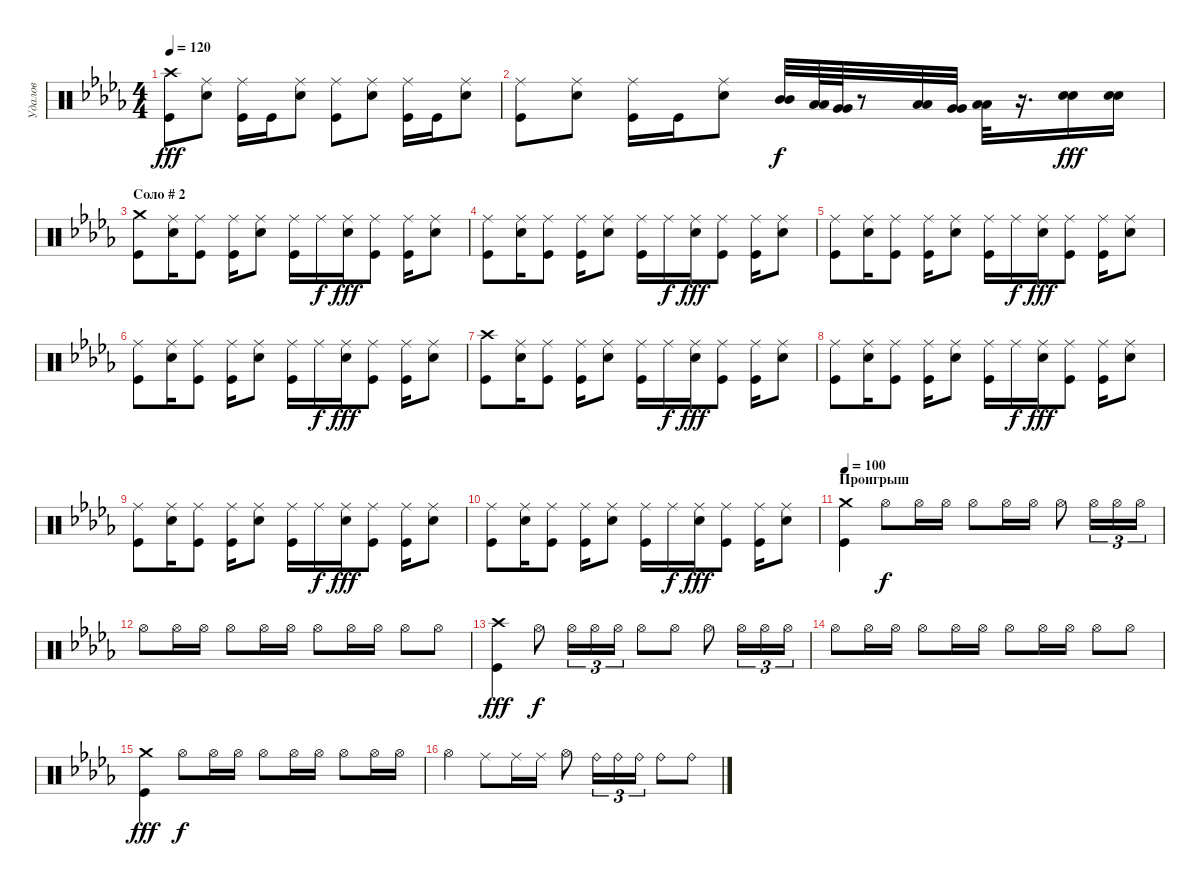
\track ("Удалов " "Удалов ") {instrument percussion}
\staff {score}
\articulation defaults
\ts (4 4)
\tempo 120
\clef neutral
\ks db
("Crash high (hit)" "Kick (hit)").8{dy fff} ("Snare (hit) 2" "Ride (middle)").8 ("Kick (hit)" "Ride (middle)").16 "Kick (hit)".16 ("Snare (hit) 2" "Ride (middle)").8 ("Kick (hit)" "Ride (middle)").8 ("Snare (hit) 2" "Ride (middle)").8 ("Kick (hit)" "Ride (middle)").16 "Kick (hit)".16 ("Snare (hit) 2" "Ride (middle)").8 |
("Kick (hit)" "Ride (middle)").8 ("Snare (hit) 2" "Ride (middle)").8 ("Kick (hit)" "Ride (middle)").16 "Kick (hit)".16 ("Snare (hit) 2" "Ride (middle)").8 ("Mid Tom (hit)" "Mid Tom (hit)").32{dy f} ("Low Tom (hit)" "Low Tom (hit)").64 ("Very Low Tom (hit)" "Very Low Tom (hit)").64 r.8 ("Low Tom (hit)" "Low Tom (hit)").32 ("Very Low Tom (hit)" "Very Low Tom (hit)").32 ("Low Floor Tom (hit)" "Low Floor Tom (hit)").32 r.16{d} ("Snare (hit) 2" "Snare (hit) 2").16{dy fff} ("Snare (hit) 2" "Snare (hit) 2").16 |
\section ("" "Соло # 2")
("Crash medium (hit)" "Kick (hit)").8 ("Snare (hit) 2" "Ride (middle)").16 ("Kick (hit)" "Ride (middle)").8 ("Kick (hit)" "Ride (middle)").16 ("Snare (hit) 2" "Ride (middle)").8 ("Kick (hit)" "Ride (middle)").16 "Ride (middle)".16{dy f} ("Snare (hit) 2" "Ride (middle)").16{dy fff} ("Kick (hit)" "Ride (middle)").8 ("Kick (hit)" "Ride (middle)").16 ("Snare (hit) 2" "Ride (middle)").8 |
("Kick (hit)" "Ride (middle)").8 ("Snare (hit) 2" "Ride (middle)").16 ("Kick (hit)" "Ride (middle)").8 ("Kick (hit)" "Ride (middle)").16 ("Snare (hit) 2" "Ride (middle)").8 ("Kick (hit)" "Ride (middle)").16 "Ride (middle)".16{dy f} ("Snare (hit) 2" "Ride (middle)").16{dy fff} ("Kick (hit)" "Ride (middle)").8 ("Kick (hit)" "Ride (middle)").16 ("Snare (hit) 2" "Ride (middle)").8 |
("Kick (hit)" "Ride (middle)").8 ("Snare (hit) 2" "Ride (middle)").16 ("Kick (hit)" "Ride (middle)").8 ("Kick (hit)" "Ride (middle)").16 ("Snare (hit) 2" "Ride (middle)").8 ("Kick (hit)" "Ride (middle)").16 "Ride (middle)".16{dy f} ("Snare (hit) 2" "Ride (middle)").16{dy fff} ("Kick (hit)" "Ride (middle)").8 ("Kick (hit)" "Ride (middle)").16 ("Snare (hit) 2" "Ride (middle)").8 |
("Kick (hit)" "Ride (middle)").8 ("Snare (hit) 2" "Ride (middle)").16 ("Kick (hit)" "Ride (middle)").8 ("Kick (hit)" "Ride (middle)").16 ("Snare (hit) 2" "Ride (middle)").8 ("Kick (hit)" "Ride (middle)").16 "Ride (middle)".16{dy f} ("Snare (hit) 2" "Ride (middle)").16{dy fff} ("Kick (hit)" "Ride (middle)").8 ("Kick (hit)" "Ride (middle)").16 ("Snare (hit) 2" "Ride (middle)").8 |
("Kick (hit)" "Crash high (hit)").8 ("Snare (hit) 2" "Ride (middle)").16 ("Kick (hit)" "Ride (middle)").8 ("Kick (hit)" "Ride (middle)").16 ("Snare (hit) 2" "Ride (middle)").8 ("Kick (hit)" "Ride (middle)").16 "Ride (middle)".16{dy f} ("Snare (hit) 2" "Ride (middle)").16{dy fff} ("Kick (hit)" "Ride (middle)").8 ("Kick (hit)" "Ride (middle)").16 ("Snare (hit) 2" "Ride (middle)").8 |
("Kick (hit)" "Ride (middle)").8 ("Snare (hit) 2" "Ride (middle)").16 ("Kick (hit)" "Ride (middle)").8 ("Kick (hit)" "Ride (middle)").16 ("Snare (hit) 2" "Ride (middle)").8 ("Kick (hit)" "Ride (middle)").16 "Ride (middle)".16{dy f} ("Snare (hit) 2" "Ride (middle)").16{dy fff} ("Kick (hit)" "Ride (middle)").8 ("Kick (hit)" "Ride (middle)").16 ("Snare (hit) 2" "Ride (middle)").8 |
("Kick (hit)" "Ride (middle)").8 ("Snare (hit) 2" "Ride (middle)").16 ("Kick (hit)" "Ride (middle)").8 ("Kick (hit)" "Ride (middle)").16 ("Snare (hit) 2" "Ride (middle)").8 ("Kick (hit)" "Ride (middle)").16 "Ride (middle)".16{dy f} ("Snare (hit) 2" "Ride (middle)").16{dy fff} ("Kick (hit)" "Ride (middle)").8 ("Kick (hit)" "Ride (middle)").16 ("Snare (hit) 2" "Ride (middle)").8 |
("Kick (hit)" "Ride (middle)").8 ("Snare (hit) 2" "Ride (middle)").16 ("Kick (hit)" "Ride (middle)").8 ("Kick (hit)" "Ride (middle)").16 ("Snare (hit) 2" "Ride (middle)").8 ("Kick (hit)" "Ride (middle)").16 "Ride (middle)".16{dy f} ("Snare (hit) 2" "Ride (middle)").16{dy fff} ("Kick (hit)" "Ride (middle)").8 ("Kick (hit)" "Ride (middle)").16 ("Snare (hit) 2" "Ride (middle)").8 |
\section ("" "Проигрыш")
\tempo 100
("Kick (hit)" "Crash medium (hit)").4 "Hi-Hat (open)".8{dy f} "Hi-Hat (open)".16 "Hi-Hat (open)".16 "Hi-Hat (open)".8 "Hi-Hat (open)".16 "Hi-Hat (open)".16 "Hi-Hat (open)".8 "Hi-Hat (open)".16{tu (3 2)} "Hi-Hat (open)".16{tu (3 2)} "Hi-Hat (open)".16{tu (3 2)} |
"Hi-Hat (open)".8 "Hi-Hat (open)".16 "Hi-Hat (open)".16 "Hi-Hat (open)".8 "Hi-Hat (open)".16 "Hi-Hat (open)".16 "Hi-Hat (open)".8 "Hi-Hat (open)".16 "Hi-Hat (open)".16 "Hi-Hat (open)".8 "Hi-Hat (open)".8 |
("Kick (hit)" "Crash high (hit)").4{dy fff} "Hi-Hat (open)".8{dy f} "Hi-Hat (open)".16{tu (3 2)} "Hi-Hat (open)".16{tu (3 2)} "Hi-Hat (open)".16{tu (3 2)} "Hi-Hat (open)".8 "Hi-Hat (open)".8 "Hi-Hat (open)".8 "Hi-Hat (open)".16{tu (3 2)} "Hi-Hat (open)".16{tu (3 2)} "Hi-Hat (open)".16{tu (3 2)} |
"Hi-Hat (open)".8 "Hi-Hat (open)".16 "Hi-Hat (open)".16 "Hi-Hat (open)".8 "Hi-Hat (open)".16 "Hi-Hat (open)".16 "Hi-Hat (open)".8 "Hi-Hat (open)".16 "Hi-Hat (open)".16 "Hi-Hat (open)".8 "Hi-Hat (open)".8 |
("Kick (hit)" "Crash medium (hit)").4{dy fff} "Hi-Hat (open)".8{dy f} "Hi-Hat (open)".16 "Hi-Hat (open)".16 "Hi-Hat (open)".8 "Hi-Hat (open)".16 "Hi-Hat (open)".16 "Hi-Hat (open)".8 "Hi-Hat (open)".16 "Hi-Hat (open)".16 |
"Hi-Hat (open)".4 "Ride (middle)".8 "Ride (middle)".16 "Ride (middle)".16 "Hi-Hat (open)".8 "Ride (bell)".16{tu (3 2)} "Ride (bell)".16{tu (3 2)} "Ride (bell)".16{tu (3 2)} "Ride (bell)".8 "Ride (bell)".8
